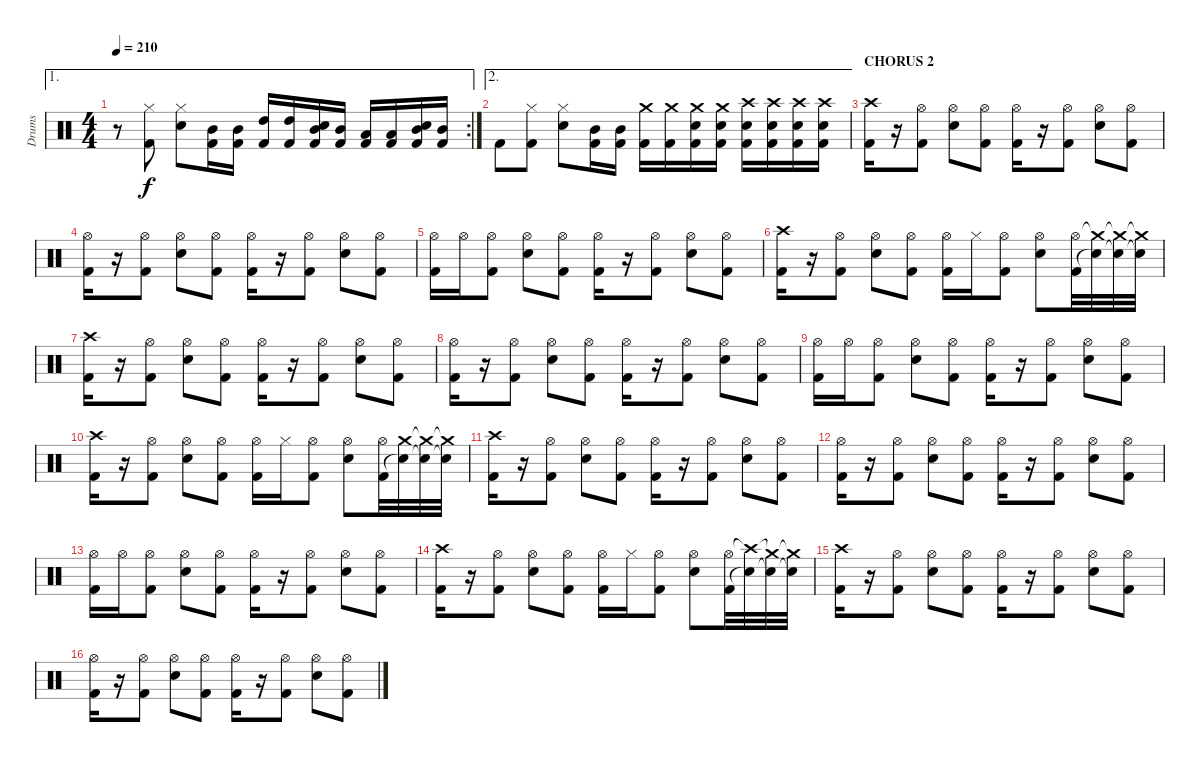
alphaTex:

\track ("Drums" "Drums") {instrument percussion}
\staff {score}
\articulation defaults
\ae 1
\rc 2
\ts (4 4)
\tempo 210
\clef neutral
\ks c
r.8{dy f} ("Hi-Hat (closed)" "Kick (hit) 2").8 ("Hi-Hat (closed)" "Electric Snare (hit)").8 ("Mid Tom (hit)" "Kick (hit) 2").16 ("Mid Tom (hit)" "Kick (hit) 2").16 ("High Tom (hit)" "Kick (hit) 2").16 ("High Tom (hit)" "Kick (hit) 2").16 ("Mid Tom (hit)" "Electric Snare (hit)" "Kick (hit) 2").16 ("Mid Tom (hit)" "Kick (hit) 2").16 ("Low Tom (hit)" "Kick (hit) 2").16 ("Low Tom (hit)" "Kick (hit) 2").16 ("Mid Tom (hit)" "Electric Snare (hit)" "Kick (hit) 2").16 ("Mid Tom (hit)" "Kick (hit) 2").16 |
\ae 2 "Kick (hit) 2".8
("Hi-Hat (closed)" "Kick (hit) 2").8 ("Hi-Hat (closed)" "Electric Snare (hit)").8 ("Mid Tom (hit)" "Kick (hit) 2").16 ("Mid Tom (hit)" "Kick (hit) 2").16 ("Crash medium (hit)" "Kick (hit) 2").16 ("Crash medium (hit)" "Kick (hit) 2").16 ("Crash medium (hit)" "Electric Snare (hit)" "Kick (hit) 2").16 ("Crash medium (hit)" "Electric Snare (hit)" "Kick (hit) 2").16 ("Crash high (hit)" "Electric Snare (hit)" "Kick (hit) 2").16 ("Crash high (hit)" "Electric Snare (hit)" "Kick (hit) 2").16 ("Crash high (hit)" "Electric Snare (hit)" "Kick (hit) 2").16 ("Crash high (hit)" "Electric Snare (hit)" "Kick (hit) 2").16 |
\section ("" "CHORUS 2")
("Crash high (hit)" "Kick (hit) 2").16 r.16 ("Hi-Hat (open)" "Kick (hit) 2").8 ("Hi-Hat (open)" "Electric Snare (hit)").8 ("Hi-Hat (open)" "Kick (hit) 2").8 ("Hi-Hat (open)" "Kick (hit) 2").16 r.16 ("Hi-Hat (open)" "Kick (hit) 2").8 ("Hi-Hat (open)" "Electric Snare (hit)").8 ("Hi-Hat (open)" "Kick (hit) 2").8 |
("Hi-Hat (open)" "Kick (hit) 2").16 r.16 ("Hi-Hat (open)" "Kick (hit) 2").8 ("Hi-Hat (open)" "Electric Snare (hit)").8 ("Hi-Hat (open)" "Kick (hit) 2").8 ("Hi-Hat (open)" "Kick (hit) 2").16 r.16 ("Hi-Hat (open)" "Kick (hit) 2").8 ("Hi-Hat (open)" "Electric Snare (hit)").8 ("Hi-Hat (open)" "Kick (hit) 2").8 |
("Hi-Hat (open)" "Kick (hit) 2").16 "Hi-Hat (open)".16 ("Hi-Hat (open)" "Kick (hit) 2").8 ("Hi-Hat (open)" "Electric Snare (hit)").8 ("Hi-Hat (open)" "Kick (hit) 2").8 ("Hi-Hat (open)" "Kick (hit) 2").16 r.16 ("Hi-Hat (open)" "Kick (hit) 2").8 ("Hi-Hat (open)" "Electric Snare (hit)").8 ("Hi-Hat (open)" "Kick (hit) 2").8 |
("Crash high (hit)" "Kick (hit) 2").16 r.16 ("Hi-Hat (open)" "Kick (hit) 2").8 ("Hi-Hat (open)" "Electric Snare (hit)").8 ("Hi-Hat (open)" "Kick (hit) 2").8 ("Hi-Hat (open)" "Kick (hit) 2").16 "Hi-Hat (closed)".16 ("Hi-Hat (open)" "Kick (hit) 2").8 ("Hi-Hat (open)" "Electric Snare (hit)").8 ("Hi-Hat (open)" "Kick (hit) 2").32 ("Crash medium (hit)"{t} "Electric Snare (hit)"{t}).32 ("Crash medium (hit)"{t} "Electric Snare (hit)"{t}).32 ("Crash medium (hit)"{t} "Electric Snare (hit)"{t}).32 |
("Crash high (hit)" "Kick (hit) 2").16 r.16 ("Hi-Hat (open)" "Kick (hit) 2").8 ("Hi-Hat (open)" "Electric Snare (hit)").8 ("Hi-Hat (open)" "Kick (hit) 2").8 ("Hi-Hat (open)" "Kick (hit) 2").16 r.16 ("Hi-Hat (open)" "Kick (hit) 2").8 ("Hi-Hat (open)" "Electric Snare (hit)").8 ("Hi-Hat (open)" "Kick (hit) 2").8 |
("Hi-Hat (open)" "Kick (hit) 2").16 r.16 ("Hi-Hat (open)" "Kick (hit) 2").8 ("Hi-Hat (open)" "Electric Snare (hit)").8 ("Hi-Hat (open)" "Kick (hit) 2").8 ("Hi-Hat (open)" "Kick (hit) 2").16 r.16 ("Hi-Hat (open)" "Kick (hit) 2").8 ("Hi-Hat (open)" "Electric Snare (hit)").8 ("Hi-Hat (open)" "Kick (hit) 2").8 |
("Hi-Hat (open)" "Kick (hit) 2").16 "Hi-Hat (open)".16 ("Hi-Hat (open)" "Kick (hit) 2").8 ("Hi-Hat (open)" "Electric Snare (hit)").8 ("Hi-Hat (open)" "Kick (hit) 2").8 ("Hi-Hat (open)" "Kick (hit) 2").16 r.16 ("Hi-Hat (open)" "Kick (hit) 2").8 ("Hi-Hat (open)" "Electric Snare (hit)").8 ("Hi-Hat (open)" "Kick (hit) 2").8 |
("Crash high (hit)" "Kick (hit) 2").16 r.16 ("Hi-Hat (open)" "Kick (hit) 2").8 ("Hi-Hat (open)" "Electric Snare (hit)").8 ("Hi-Hat (open)" "Kick (hit) 2").8 ("Hi-Hat (open)" "Kick (hit) 2").16 "Hi-Hat (closed)".16 ("Hi-Hat (open)" "Kick (hit) 2").8 ("Hi-Hat (open)" "Electric Snare (hit)").8 ("Hi-Hat (open)" "Kick (hit) 2").32 ("Crash medium (hit)" "Electric Snare (hit)"{t}).32 ("Crash medium (hit)"{t} "Electric Snare (hit)"{t}).32 ("Crash medium (hit)"{t} "Electric Snare (hit)"{t}).32 |
("Crash high (hit)" "Kick (hit) 2").16 r.16 ("Hi-Hat (open)" "Kick (hit) 2").8 ("Hi-Hat (open)" "Electric Snare (hit)").8 ("Hi-Hat (open)" "Kick (hit) 2").8 ("Hi-Hat (open)" "Kick (hit) 2").16 r.16 ("Hi-Hat (open)" "Kick (hit) 2").8 ("Hi-Hat (open)" "Electric Snare (hit)").8 ("Hi-Hat (open)" "Kick (hit) 2").8 |
("Hi-Hat (open)" "Kick (hit) 2").16 r.16 ("Hi-Hat (open)" "Kick (hit) 2").8 ("Hi-Hat (open)" "Electric Snare (hit)").8 ("Hi-Hat (open)" "Kick (hit) 2").8 ("Hi-Hat (open)" "Kick (hit) 2").16 r.16 ("Hi-Hat (open)" "Kick (hit) 2").8 ("Hi-Hat (open)" "Electric Snare (hit)").8 ("Hi-Hat (open)" "Kick (hit) 2").8 |
("Hi-Hat (open)" "Kick (hit) 2").16 "Hi-Hat (open)".16 ("Hi-Hat (open)" "Kick (hit) 2").8 ("Hi-Hat (open)" "Electric Snare (hit)").8 ("Hi-Hat (open)" "Kick (hit) 2").8 ("Hi-Hat (open)" "Kick (hit) 2").16 r.16 ("Hi-Hat (open)" "Kick (hit) 2").8 ("Hi-Hat (open)" "Electric Snare (hit)").8 ("Hi-Hat (open)" "Kick (hit) 2").8 |
("Crash high (hit)" "Kick (hit) 2").16 r.16 ("Hi-Hat (open)" "Kick (hit) 2").8 ("Hi-Hat (open)" "Electric Snare (hit)").8 ("Hi-Hat (open)" "Kick (hit) 2").8 ("Hi-Hat (open)" "Kick (hit) 2").16 "Hi-Hat (closed)".16 ("Hi-Hat (open)" "Kick (hit) 2").8 ("Hi-Hat (open)" "Electric Snare (hit)").8 ("Hi-Hat (open)" "Kick (hit) 2").32 ("Crash high (hit)"{t} "Electric Snare (hit)"{t}).32 ("Crash medium (hit)"{t} "Electric Snare (hit)"{t}).32 ("Crash medium (hit)"{t} "Electric Snare (hit)"{t}).32 |
("Crash high (hit)" "Kick (hit) 2").16 r.16 ("Hi-Hat (open)" "Kick (hit) 2").8 ("Hi-Hat (open)" "Electric Snare (hit)").8 ("Hi-Hat (open)" "Kick (hit) 2").8 ("Hi-Hat (open)" "Kick (hit) 2").16 r.16 ("Hi-Hat (open)" "Kick (hit) 2").8 ("Hi-Hat (open)" "Electric Snare (hit)").8 ("Hi-Hat (open)" "Kick (hit) 2").8 |
("Hi-Hat (open)" "Kick (hit) 2").16 r.16 ("Hi-Hat (open)" "Kick (hit) 2").8 ("Hi-Hat (open)" "Electric Snare (hit)").8 ("Hi-Hat (open)" "Kick (hit) 2").8 ("Hi-Hat (open)" "Kick (hit) 2").16 r.16 ("Hi-Hat (open)" "Kick (hit) 2").8 ("Hi-Hat (open)" "Electric Snare (hit)").8 ("Hi-Hat (open)" "Kick (hit) 2").8
